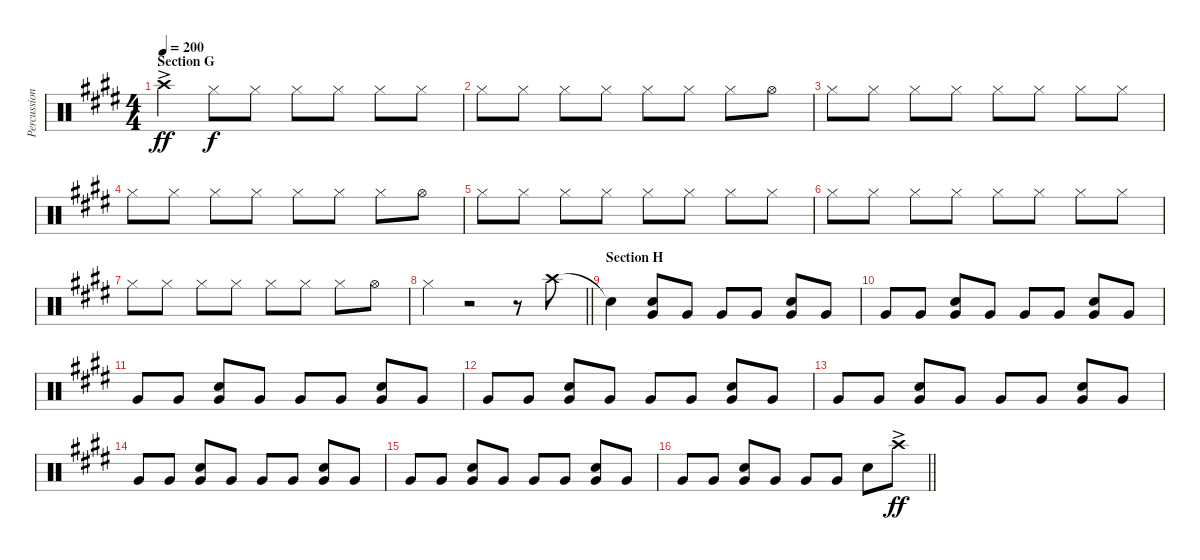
\track ("Percussion - other" "Percussion") {instrument percussion}
\staff {score}
\articulation defaults
\ts (4 4)
\section ("" "Section G")
\tempo 200
\clef neutral
\ks e "Crash high (hit)"{ac}.4{dy ff} "Hi-Hat (closed)".8{dy f} "Hi-Hat (closed)".8 "Hi-Hat (closed)".8 "Hi-Hat (closed)".8 "Hi-Hat (closed)".8 "Hi-Hat (closed)".8
|
"Hi-Hat (closed)".8 "Hi-Hat (closed)".8 "Hi-Hat (closed)".8 "Hi-Hat (closed)".8 "Hi-Hat (closed)".8 "Hi-Hat (closed)".8 "Hi-Hat (closed)".8 "Hi-Hat (open)".8 |
"Hi-Hat (closed)".8 "Hi-Hat (closed)".8 "Hi-Hat (closed)".8 "Hi-Hat (closed)".8 "Hi-Hat (closed)".8 "Hi-Hat (closed)".8 "Hi-Hat (closed)".8 "Hi-Hat (closed)".8 |
"Hi-Hat (closed)".8 "Hi-Hat (closed)".8 "Hi-Hat (closed)".8 "Hi-Hat (closed)".8 "Hi-Hat (closed)".8 "Hi-Hat (closed)".8 "Hi-Hat (closed)".8 "Hi-Hat (open)".8 |
"Hi-Hat (closed)".8 "Hi-Hat (closed)".8 "Hi-Hat (closed)".8 "Hi-Hat (closed)".8 "Hi-Hat (closed)".8 "Hi-Hat (closed)".8 "Hi-Hat (closed)".8 "Hi-Hat (closed)".8 |
"Hi-Hat (closed)".8 "Hi-Hat (closed)".8 "Hi-Hat (closed)".8 "Hi-Hat (closed)".8 "Hi-Hat (closed)".8 "Hi-Hat (closed)".8 "Hi-Hat (closed)".8 "Hi-Hat (closed)".8 |
"Hi-Hat (closed)".8 "Hi-Hat (closed)".8 "Hi-Hat (closed)".8 "Hi-Hat (closed)".8 "Hi-Hat (closed)".8 "Hi-Hat (closed)".8 "Hi-Hat (closed)".8 "Hi-Hat (open)".8 |
\barLineRight lightlight "Hi-Hat (closed)".4
r.2 r.8 "Crash high (hit)".8 |
\section ("" "Section H")
"Snare (hit)"{t}.4 ("Snare (hit) 2" "Very Low Tom (hit)").8 "Very Low Tom (hit)".8 "Very Low Tom (hit)".8 "Very Low Tom (hit)".8 ("Snare (hit) 2" "Very Low Tom (hit)").8 "Very Low Tom (hit)".8 |
"Very Low Tom (hit)".8 "Very Low Tom (hit)".8 ("Snare (hit) 2" "Very Low Tom (hit)").8 "Very Low Tom (hit)".8 "Very Low Tom (hit)".8 "Very Low Tom (hit)".8 ("Snare (hit) 2" "Very Low Tom (hit)").8 "Very Low Tom (hit)".8 |
"Very Low Tom (hit)".8 "Very Low Tom (hit)".8 ("Snare (hit) 2" "Very Low Tom (hit)").8 "Very Low Tom (hit)".8 "Very Low Tom (hit)".8 "Very Low Tom (hit)".8 ("Snare (hit) 2" "Very Low Tom (hit)").8 "Very Low Tom (hit)".8 |
"Very Low Tom (hit)".8 "Very Low Tom (hit)".8 ("Snare (hit) 2" "Very Low Tom (hit)").8 "Very Low Tom (hit)".8 "Very Low Tom (hit)".8 "Very Low Tom (hit)".8 ("Snare (hit) 2" "Very Low Tom (hit)").8 "Very Low Tom (hit)".8 |
"Very Low Tom (hit)".8 "Very Low Tom (hit)".8 ("Snare (hit) 2" "Very Low Tom (hit)").8 "Very Low Tom (hit)".8 "Very Low Tom (hit)".8 "Very Low Tom (hit)".8 ("Snare (hit) 2" "Very Low Tom (hit)").8 "Very Low Tom (hit)".8 |
"Very Low Tom (hit)".8 "Very Low Tom (hit)".8 ("Snare (hit) 2" "Very Low Tom (hit)").8 "Very Low Tom (hit)".8 "Very Low Tom (hit)".8 "Very Low Tom (hit)".8 ("Snare (hit) 2" "Very Low Tom (hit)").8 "Very Low Tom (hit)".8 |
"Very Low Tom (hit)".8 "Very Low Tom (hit)".8 ("Snare (hit) 2" "Very Low Tom (hit)").8 "Very Low Tom (hit)".8 "Very Low Tom (hit)".8 "Very Low Tom (hit)".8 ("Snare (hit) 2" "Very Low Tom (hit)").8 "Very Low Tom (hit)".8 |
\barLineRight lightlight "Very Low Tom (hit)".8 "Very Low Tom (hit)".8
("Snare (hit) 2" "Very Low Tom (hit)").8 "Very Low Tom (hit)".8 "Very Low Tom (hit)".8 "Very Low Tom (hit)".8 "Snare (hit) 2".8 "Crash high (hit)"{ac}.8{dy ff}
